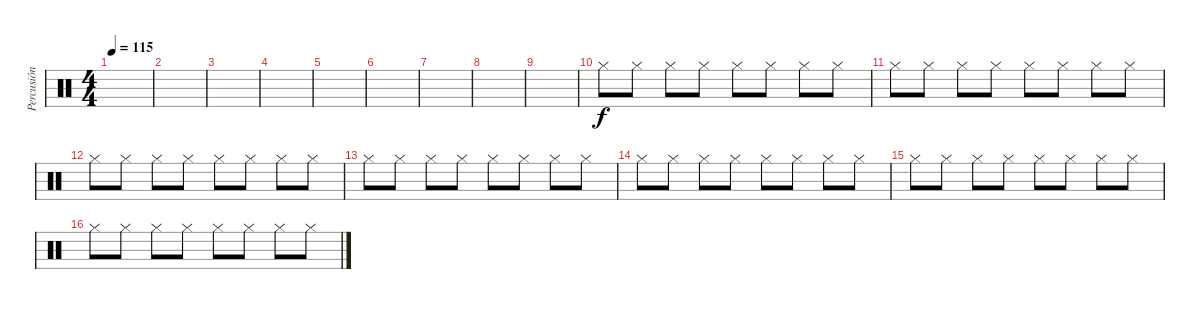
\track ("Percusión" "Percusión") {instrument percussion}
\staff {score}
\articulation defaults
\ts (4 4)
\tempo 115
\clef neutral
\ks c
|
|
|
|
|
|
|
|
|
"Hi-Hat (closed)".8 "Hi-Hat (closed)".8 "Hi-Hat (closed)".8 "Hi-Hat (closed)".8 "Hi-Hat (closed)".8 "Hi-Hat (closed)".8 "Hi-Hat (closed)".8 "Hi-Hat (closed)".8 |
"Hi-Hat (closed)".8 "Hi-Hat (closed)".8 "Hi-Hat (closed)".8 "Hi-Hat (closed)".8 "Hi-Hat (closed)".8 "Hi-Hat (closed)".8 "Hi-Hat (closed)".8 "Hi-Hat (closed)".8 |
"Hi-Hat (closed)".8 "Hi-Hat (closed)".8 "Hi-Hat (closed)".8 "Hi-Hat (closed)".8 "Hi-Hat (closed)".8 "Hi-Hat (closed)".8 "Hi-Hat (closed)".8 "Hi-Hat (closed)".8 |
"Hi-Hat (closed)".8 "Hi-Hat (closed)".8 "Hi-Hat (closed)".8 "Hi-Hat (closed)".8 "Hi-Hat (closed)".8 "Hi-Hat (closed)".8 "Hi-Hat (closed)".8 "Hi-Hat (closed)".8 |
"Hi-Hat (closed)".8 "Hi-Hat (closed)".8 "Hi-Hat (closed)".8 "Hi-Hat (closed)".8 "Hi-Hat (closed)".8 "Hi-Hat (closed)".8 "Hi-Hat (closed)".8 "Hi-Hat (closed)".8 |
"Hi-Hat (closed)".8 "Hi-Hat (closed)".8 "Hi-Hat (closed)".8 "Hi-Hat (closed)".8 "Hi-Hat (closed)".8 "Hi-Hat (closed)".8 "Hi-Hat (closed)".8 "Hi-Hat (closed)".8 |
"Hi-Hat (closed)".8 "Hi-Hat (closed)".8 "Hi-Hat (closed)".8 "Hi-Hat (closed)".8 "Hi-Hat (closed)".8 "Hi-Hat (closed)".8 "Hi-Hat (closed)".8 "Hi-Hat (closed)".8
